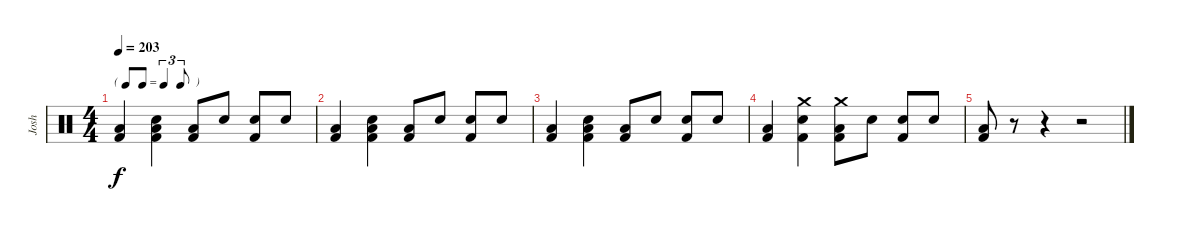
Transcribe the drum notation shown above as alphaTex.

\track ("Josh" "Josh") {instrument percussion}
\staff {score}
\articulation defaults
\ts (4 4)
\tf triplet8th
\tempo 203
\clef neutral
\ks c
("Low Tom (hit)" "Kick (hit) 2").4{dy f} ("Low Tom (hit)" "Electric Snare (hit)" "Kick (hit) 2").4 ("Low Tom (hit)" "Kick (hit) 2").8 "Electric Snare (hit)".8 ("Electric Snare (hit)" "Kick (hit) 2").8 "Electric Snare (hit)".8 |
("Low Tom (hit)" "Kick (hit) 2").4 ("Low Tom (hit)" "Electric Snare (hit)" "Kick (hit) 2").4 ("Low Tom (hit)" "Kick (hit) 2").8 "Electric Snare (hit)".8 ("Electric Snare (hit)" "Kick (hit) 2").8 "Electric Snare (hit)".8 |
("Low Tom (hit)" "Kick (hit) 2").4 ("Low Tom (hit)" "Electric Snare (hit)" "Kick (hit) 2").4 ("Low Tom (hit)" "Kick (hit) 2").8 "Electric Snare (hit)".8 ("Electric Snare (hit)" "Kick (hit) 2").8 "Electric Snare (hit)".8 |
("Low Tom (hit)" "Kick (hit) 2").4 ("Crash medium (hit)" "Electric Snare (hit)" "Kick (hit) 2").4 ("Crash medium (hit)" "Low Tom (hit)" "Kick (hit) 2").8 "Electric Snare (hit)".8 ("Electric Snare (hit)" "Kick (hit) 2").8 "Electric Snare (hit)".8 |
("Low Tom (hit)" "Kick (hit) 2").8 r.8 r.4 r.2
